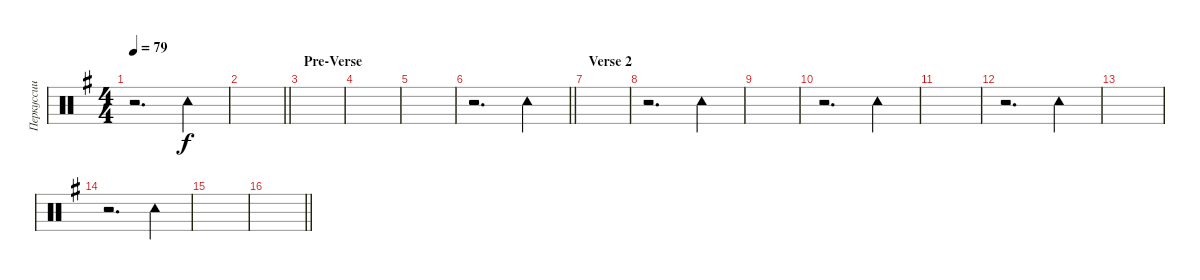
\track ("Перкуссии" "Перкуссии") {instrument percussion}
\staff {score}
\articulation defaults
\ts (4 4)
\tempo 79
\clef neutral
\ks eminor
r.2{d dy f} "Tambourine (hit)".4 |
\barLineRight lightlight
|
\section ("" "Pre-Verse")
|
|
|
\barLineRight lightlight
r.2{d} "Tambourine (hit)".4 |
\section ("" "Verse 2")
|
r.2{d} "Tambourine (hit)".4 |
|
r.2{d} "Tambourine (hit)".4 |
|
r.2{d} "Tambourine (hit)".4 |
|
r.2{d} "Tambourine (hit)".4 |
|
\barLineRight lightlight
